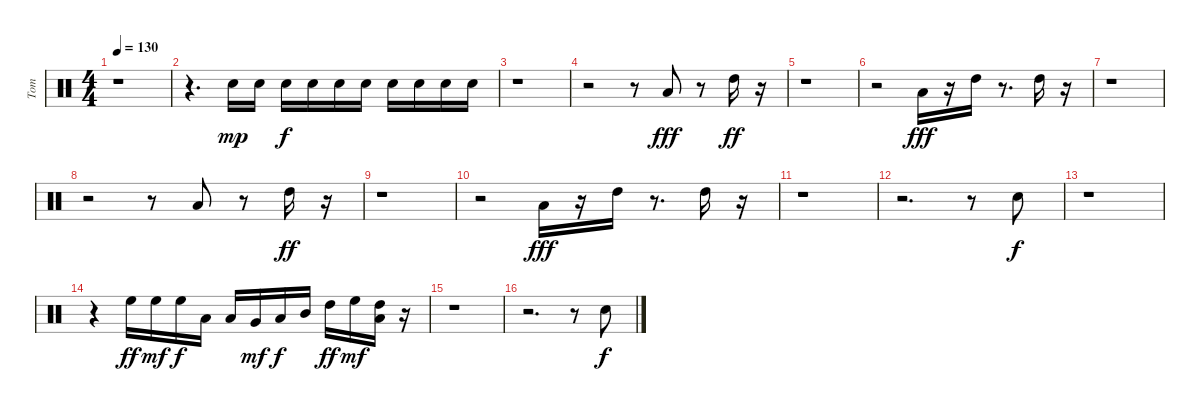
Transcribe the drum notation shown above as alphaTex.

\track ("Tom" "Tom") {instrument percussion}
\staff {score}
\articulation defaults
\ts (4 4)
\tempo 130
\clef neutral
\ks c
r.1{dy fff} |
r.4{d} "Electric Snare (hit)".16{dy mp} "Electric Snare (hit)".16 "Electric Snare (hit)".16{dy f} "Electric Snare (hit)".16 "Electric Snare (hit)".16 "Electric Snare (hit)".16 "Electric Snare (hit)".16 "Electric Snare (hit)".16 "Electric Snare (hit)".16 "Electric Snare (hit)".16 |
r.1 |
r.2 r.8 "Low Tom (hit)".8{dy fff} r.8 "High Tom (hit)".16{dy ff} r.16 |
r.1 |
r.2 "Low Tom (hit)".16{dy fff} r.16 "High Tom (hit)".16 r.8{d} "High Tom (hit)".16 r.16 |
r.1 |
r.2 r.8 "Low Tom (hit)".8 r.8 "High Tom (hit)".16{dy ff} r.16 |
r.1 |
r.2 "Low Tom (hit)".16{dy fff} r.16 "High Tom (hit)".16 r.8{d} "High Tom (hit)".16 r.16 |
r.1 |
r.2{d} r.8 "Electric Snare (hit)".8{dy f} |
r.1 |
r.4 "High Floor Tom (hit)".16{dy ff} "High Floor Tom (hit)".16{dy mf} "High Floor Tom (hit)".16{dy f} "Low Floor Tom (hit)".16 "Low Floor Tom (hit)".16 "Very Low Tom (hit)".16{dy mf} "Low Tom (hit)".16{dy f} "Mid Tom (hit)".16 "High Tom (hit)".16{dy ff} "High Floor Tom (hit)".16{dy mf} ("High Tom (hit)" "Low Floor Tom (hit)").16 r.16 |
r.1 |
r.2{d} r.8 "Electric Snare (hit)".8{dy f}
